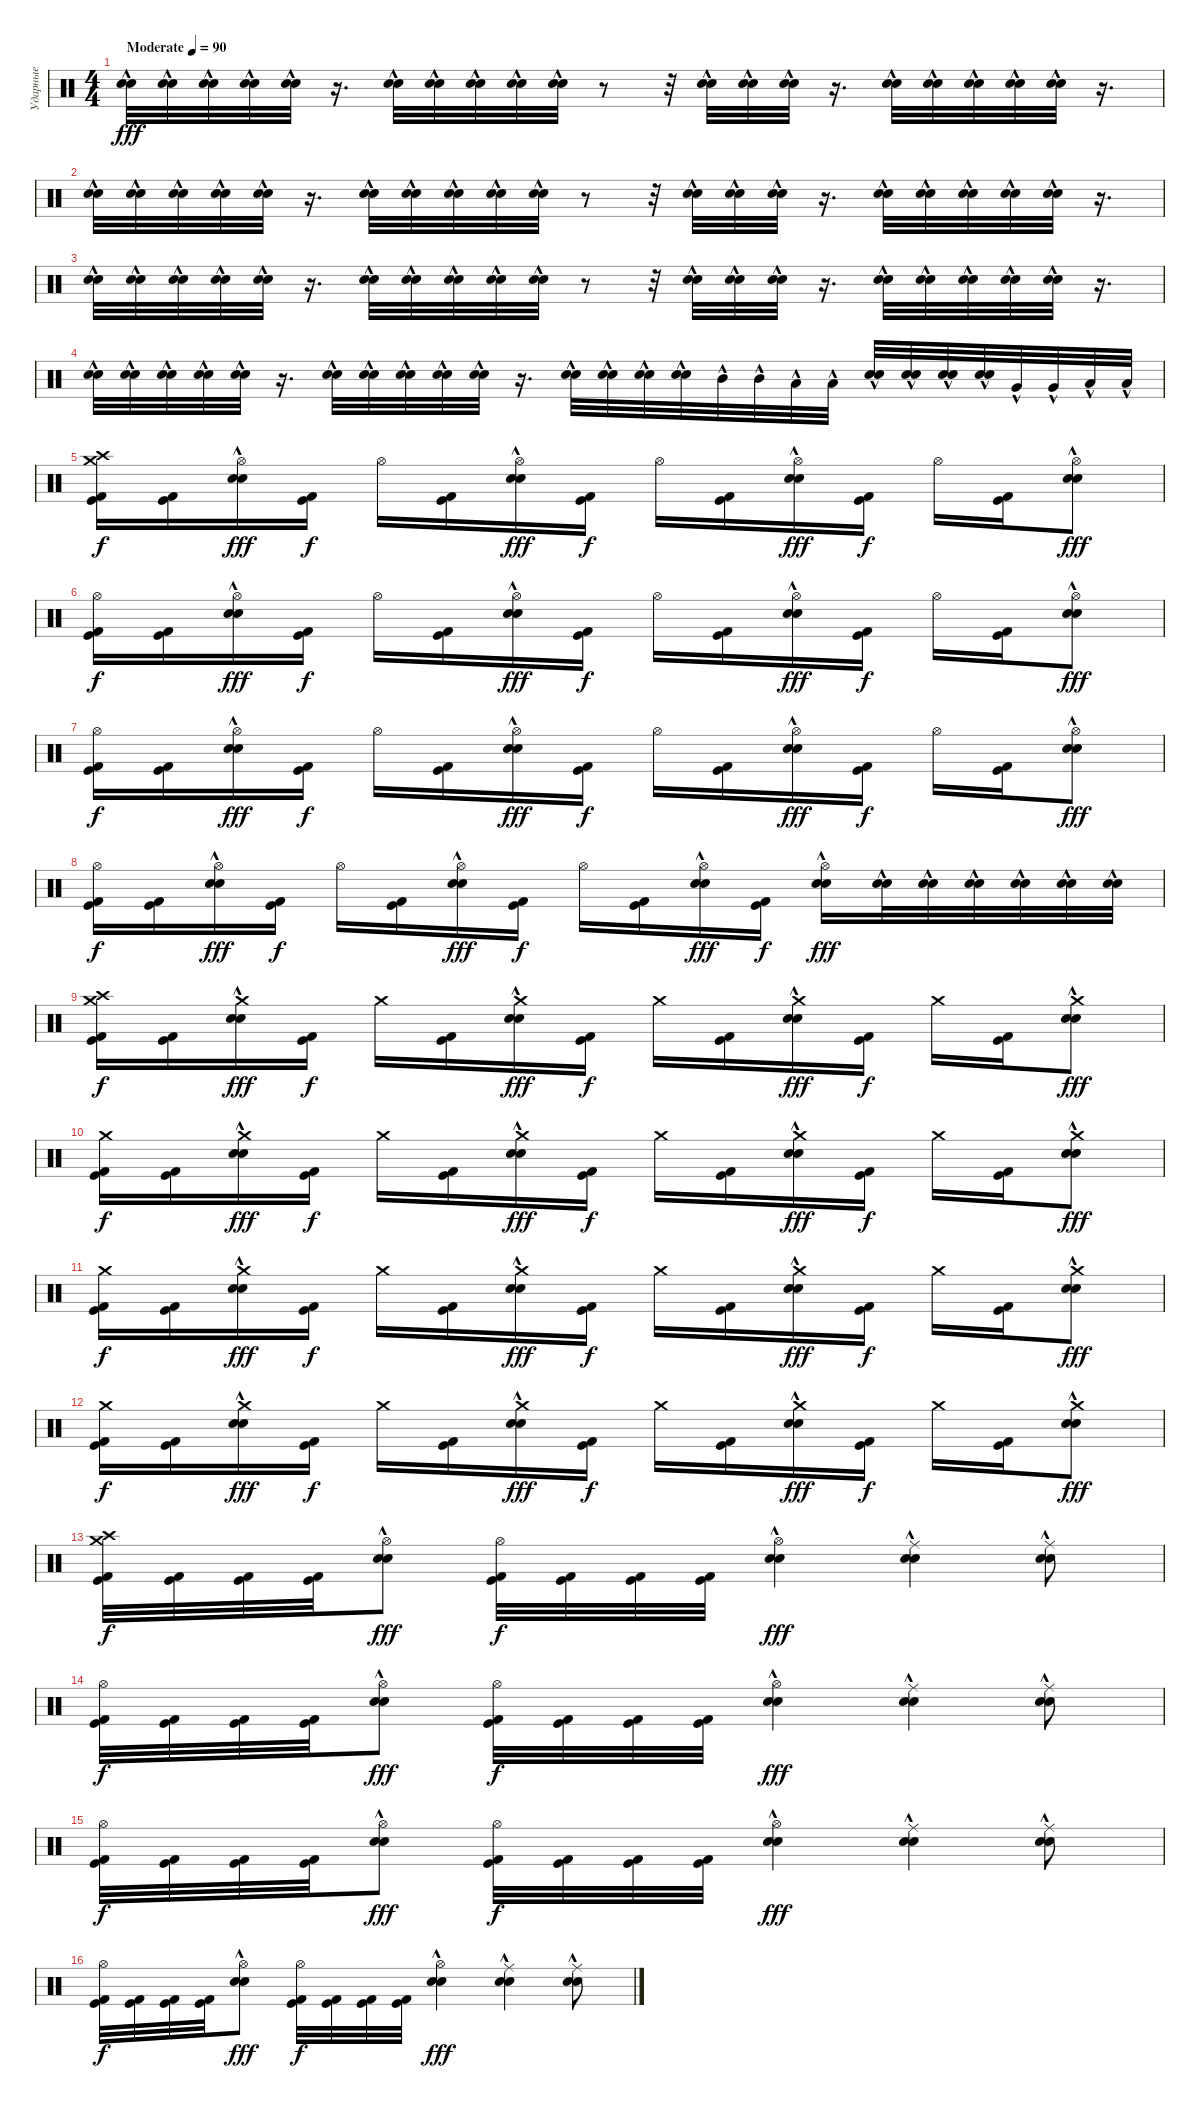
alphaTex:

\track ("Ударные" "Ударные") {instrument percussion}
\staff {score}
\articulation defaults
\ts (4 4)
\tempo (90 "Moderate")
\clef neutral
\ks c
("Snare (hit) 2"{hac} "Electric Snare (hit)"{hac}).32{dy fff} ("Snare (hit) 2"{hac} "Electric Snare (hit)"{hac}).32 ("Snare (hit) 2"{hac} "Electric Snare (hit)"{hac}).32 ("Snare (hit) 2"{hac} "Electric Snare (hit)"{hac}).32 ("Snare (hit) 2"{hac} "Electric Snare (hit)"{hac}).32 r.16{d} ("Snare (hit) 2"{hac} "Electric Snare (hit)"{hac}).32 ("Snare (hit) 2"{hac} "Electric Snare (hit)"{hac}).32 ("Snare (hit) 2"{hac} "Electric Snare (hit)"{hac}).32 ("Snare (hit) 2"{hac} "Electric Snare (hit)"{hac}).32 ("Snare (hit) 2"{hac} "Electric Snare (hit)"{hac}).32 r.8 r.32 ("Snare (hit) 2"{hac} "Electric Snare (hit)"{hac}).32 ("Snare (hit) 2"{hac} "Electric Snare (hit)"{hac}).32 ("Snare (hit) 2"{hac} "Electric Snare (hit)"{hac}).32 r.16{d} ("Snare (hit) 2"{hac} "Electric Snare (hit)"{hac}).32 ("Snare (hit) 2"{hac} "Electric Snare (hit)"{hac}).32 ("Snare (hit) 2"{hac} "Electric Snare (hit)"{hac}).32 ("Snare (hit) 2"{hac} "Electric Snare (hit)"{hac}).32 ("Snare (hit) 2"{hac} "Electric Snare (hit)"{hac}).32 r.16{d} |
("Snare (hit) 2"{hac} "Electric Snare (hit)"{hac}).32 ("Snare (hit) 2"{hac} "Electric Snare (hit)"{hac}).32 ("Snare (hit) 2"{hac} "Electric Snare (hit)"{hac}).32 ("Snare (hit) 2"{hac} "Electric Snare (hit)"{hac}).32 ("Snare (hit) 2"{hac} "Electric Snare (hit)"{hac}).32 r.16{d} ("Snare (hit) 2"{hac} "Electric Snare (hit)"{hac}).32 ("Snare (hit) 2"{hac} "Electric Snare (hit)"{hac}).32 ("Snare (hit) 2"{hac} "Electric Snare (hit)"{hac}).32 ("Snare (hit) 2"{hac} "Electric Snare (hit)"{hac}).32 ("Snare (hit) 2"{hac} "Electric Snare (hit)"{hac}).32 r.8 r.32 ("Snare (hit) 2"{hac} "Electric Snare (hit)"{hac}).32 ("Snare (hit) 2"{hac} "Electric Snare (hit)"{hac}).32 ("Snare (hit) 2"{hac} "Electric Snare (hit)"{hac}).32 r.16{d} ("Snare (hit) 2"{hac} "Electric Snare (hit)"{hac}).32 ("Snare (hit) 2"{hac} "Electric Snare (hit)"{hac}).32 ("Snare (hit) 2"{hac} "Electric Snare (hit)"{hac}).32 ("Snare (hit) 2"{hac} "Electric Snare (hit)"{hac}).32 ("Snare (hit) 2"{hac} "Electric Snare (hit)"{hac}).32 r.16{d} |
("Snare (hit) 2"{hac} "Electric Snare (hit)"{hac}).32 ("Snare (hit) 2"{hac} "Electric Snare (hit)"{hac}).32 ("Snare (hit) 2"{hac} "Electric Snare (hit)"{hac}).32 ("Snare (hit) 2"{hac} "Electric Snare (hit)"{hac}).32 ("Snare (hit) 2"{hac} "Electric Snare (hit)"{hac}).32 r.16{d} ("Snare (hit) 2"{hac} "Electric Snare (hit)"{hac}).32 ("Snare (hit) 2"{hac} "Electric Snare (hit)"{hac}).32 ("Snare (hit) 2"{hac} "Electric Snare (hit)"{hac}).32 ("Snare (hit) 2"{hac} "Electric Snare (hit)"{hac}).32 ("Snare (hit) 2"{hac} "Electric Snare (hit)"{hac}).32 r.8 r.32 ("Snare (hit) 2"{hac} "Electric Snare (hit)"{hac}).32 ("Snare (hit) 2"{hac} "Electric Snare (hit)"{hac}).32 ("Snare (hit) 2"{hac} "Electric Snare (hit)"{hac}).32 r.16{d} ("Snare (hit) 2"{hac} "Electric Snare (hit)"{hac}).32 ("Snare (hit) 2"{hac} "Electric Snare (hit)"{hac}).32 ("Snare (hit) 2"{hac} "Electric Snare (hit)"{hac}).32 ("Snare (hit) 2"{hac} "Electric Snare (hit)"{hac}).32 ("Snare (hit) 2"{hac} "Electric Snare (hit)"{hac}).32 r.16{d} |
("Snare (hit) 2"{hac} "Electric Snare (hit)"{hac}).32 ("Snare (hit) 2"{hac} "Electric Snare (hit)"{hac}).32 ("Snare (hit) 2"{hac} "Electric Snare (hit)"{hac}).32 ("Snare (hit) 2"{hac} "Electric Snare (hit)"{hac}).32 ("Snare (hit) 2"{hac} "Electric Snare (hit)"{hac}).32 r.16{d} ("Snare (hit) 2"{hac} "Electric Snare (hit)"{hac}).32 ("Snare (hit) 2"{hac} "Electric Snare (hit)"{hac}).32 ("Snare (hit) 2"{hac} "Electric Snare (hit)"{hac}).32 ("Snare (hit) 2"{hac} "Electric Snare (hit)"{hac}).32 ("Snare (hit) 2"{hac} "Electric Snare (hit)"{hac}).32 r.16{d} ("Snare (hit) 2"{hac} "Electric Snare (hit)"{hac}).32 ("Snare (hit) 2"{hac} "Electric Snare (hit)"{hac}).32 ("Snare (hit) 2"{hac} "Electric Snare (hit)"{hac}).32 ("Snare (hit) 2"{hac} "Electric Snare (hit)"{hac}).32 "Mid Tom (hit)"{hac}.32 "Mid Tom (hit)"{hac}.32 "Low Tom (hit)"{hac}.32 "Low Tom (hit)"{hac}.32 ("Snare (hit) 2"{hac} "Electric Snare (hit)"{hac}).32 ("Snare (hit) 2"{hac} "Electric Snare (hit)"{hac}).32 ("Snare (hit) 2"{hac} "Electric Snare (hit)"{hac}).32 ("Snare (hit) 2"{hac} "Electric Snare (hit)"{hac}).32 "Very Low Tom (hit)"{hac}.32 "Very Low Tom (hit)"{hac}.32 "Low Floor Tom (hit)"{hac}.32 "Low Floor Tom (hit)"{hac}.32 |
("Crash high (hit)" "Kick (hit)" "Kick (hit) 2" "Crash medium (hit)").16{dy f} ("Kick (hit)" "Kick (hit) 2").16 ("Hi-Hat (open)" "Snare (hit) 2"{hac} "Electric Snare (hit)"{hac}).16{dy fff} ("Kick (hit)" "Kick (hit) 2").16{dy f} "Hi-Hat (open)".16 ("Kick (hit)" "Kick (hit) 2").16 ("Hi-Hat (open)" "Snare (hit) 2"{hac} "Electric Snare (hit)"{hac}).16{dy fff} ("Kick (hit)" "Kick (hit) 2").16{dy f} "Hi-Hat (open)".16 ("Kick (hit)" "Kick (hit) 2").16 ("Hi-Hat (open)" "Snare (hit) 2"{hac} "Electric Snare (hit)"{hac}).16{dy fff} ("Kick (hit)" "Kick (hit) 2").16{dy f} "Hi-Hat (open)".16 ("Kick (hit)" "Kick (hit) 2").16 ("Hi-Hat (open)" "Snare (hit) 2"{hac} "Electric Snare (hit)"{hac}).8{dy fff} |
("Hi-Hat (open)" "Kick (hit)" "Kick (hit) 2").16{dy f} ("Kick (hit)" "Kick (hit) 2").16 ("Hi-Hat (open)" "Snare (hit) 2"{hac} "Electric Snare (hit)"{hac}).16{dy fff} ("Kick (hit)" "Kick (hit) 2").16{dy f} "Hi-Hat (open)".16 ("Kick (hit)" "Kick (hit) 2").16 ("Hi-Hat (open)" "Snare (hit) 2"{hac} "Electric Snare (hit)"{hac}).16{dy fff} ("Kick (hit)" "Kick (hit) 2").16{dy f} "Hi-Hat (open)".16 ("Kick (hit)" "Kick (hit) 2").16 ("Hi-Hat (open)" "Snare (hit) 2"{hac} "Electric Snare (hit)"{hac}).16{dy fff} ("Kick (hit)" "Kick (hit) 2").16{dy f} "Hi-Hat (open)".16 ("Kick (hit)" "Kick (hit) 2").16 ("Hi-Hat (open)" "Snare (hit) 2"{hac} "Electric Snare (hit)"{hac}).8{dy fff} |
("Hi-Hat (open)" "Kick (hit)" "Kick (hit) 2").16{dy f} ("Kick (hit)" "Kick (hit) 2").16 ("Hi-Hat (open)" "Snare (hit) 2"{hac} "Electric Snare (hit)"{hac}).16{dy fff} ("Kick (hit)" "Kick (hit) 2").16{dy f} "Hi-Hat (open)".16 ("Kick (hit)" "Kick (hit) 2").16 ("Hi-Hat (open)" "Snare (hit) 2"{hac} "Electric Snare (hit)"{hac}).16{dy fff} ("Kick (hit)" "Kick (hit) 2").16{dy f} "Hi-Hat (open)".16 ("Kick (hit)" "Kick (hit) 2").16 ("Hi-Hat (open)" "Snare (hit) 2"{hac} "Electric Snare (hit)"{hac}).16{dy fff} ("Kick (hit)" "Kick (hit) 2").16{dy f} "Hi-Hat (open)".16 ("Kick (hit)" "Kick (hit) 2").16 ("Hi-Hat (open)" "Snare (hit) 2"{hac} "Electric Snare (hit)"{hac}).8{dy fff} |
("Hi-Hat (open)" "Kick (hit)" "Kick (hit) 2").16{dy f} ("Kick (hit)" "Kick (hit) 2").16 ("Hi-Hat (open)" "Snare (hit) 2"{hac} "Electric Snare (hit)"{hac}).16{dy fff} ("Kick (hit)" "Kick (hit) 2").16{dy f} "Hi-Hat (open)".16 ("Kick (hit)" "Kick (hit) 2").16 ("Hi-Hat (open)" "Snare (hit) 2"{hac} "Electric Snare (hit)"{hac}).16{dy fff} ("Kick (hit)" "Kick (hit) 2").16{dy f} "Hi-Hat (open)".16 ("Kick (hit)" "Kick (hit) 2").16 ("Hi-Hat (open)" "Snare (hit) 2"{hac} "Electric Snare (hit)"{hac}).16{dy fff} ("Kick (hit)" "Kick (hit) 2").16{dy f} ("Hi-Hat (open)" "Snare (hit) 2"{hac} "Electric Snare (hit)"{hac}).16{dy fff} ("Snare (hit) 2"{hac} "Electric Snare (hit)"{hac}).32 ("Snare (hit) 2"{hac} "Electric Snare (hit)"{hac}).32 ("Snare (hit) 2"{hac} "Electric Snare (hit)"{hac}).32 ("Snare (hit) 2"{hac} "Electric Snare (hit)"{hac}).32 ("Snare (hit) 2"{hac} "Electric Snare (hit)"{hac}).32 ("Snare (hit) 2"{hac} "Electric Snare (hit)"{hac}).32 |
("Crash high (hit)" "Kick (hit)" "Kick (hit) 2" "Crash medium (hit)").16{dy f} ("Kick (hit)" "Kick (hit) 2").16 ("Crash medium (hit)" "Snare (hit) 2"{hac} "Electric Snare (hit)"{hac}).16{dy fff} ("Kick (hit)" "Kick (hit) 2").16{dy f} "Crash medium (hit)".16 ("Kick (hit)" "Kick (hit) 2").16 ("Crash medium (hit)" "Snare (hit) 2"{hac} "Electric Snare (hit)"{hac}).16{dy fff} ("Kick (hit)" "Kick (hit) 2").16{dy f} "Crash medium (hit)".16 ("Kick (hit)" "Kick (hit) 2").16 ("Crash medium (hit)" "Snare (hit) 2"{hac} "Electric Snare (hit)"{hac}).16{dy fff} ("Kick (hit)" "Kick (hit) 2").16{dy f} "Crash medium (hit)".16 ("Kick (hit)" "Kick (hit) 2").16 ("Crash medium (hit)" "Snare (hit) 2"{hac} "Electric Snare (hit)"{hac}).8{dy fff} |
("Crash medium (hit)" "Kick (hit)" "Kick (hit) 2").16{dy f} ("Kick (hit)" "Kick (hit) 2").16 ("Crash medium (hit)" "Snare (hit) 2"{hac} "Electric Snare (hit)"{hac}).16{dy fff} ("Kick (hit)" "Kick (hit) 2").16{dy f} "Crash medium (hit)".16 ("Kick (hit)" "Kick (hit) 2").16 ("Crash medium (hit)" "Snare (hit) 2"{hac} "Electric Snare (hit)"{hac}).16{dy fff} ("Kick (hit)" "Kick (hit) 2").16{dy f} "Crash medium (hit)".16 ("Kick (hit)" "Kick (hit) 2").16 ("Crash medium (hit)" "Snare (hit) 2"{hac} "Electric Snare (hit)"{hac}).16{dy fff} ("Kick (hit)" "Kick (hit) 2").16{dy f} "Crash medium (hit)".16 ("Kick (hit)" "Kick (hit) 2").16 ("Crash medium (hit)" "Snare (hit) 2"{hac} "Electric Snare (hit)"{hac}).8{dy fff} |
("Crash medium (hit)" "Kick (hit)" "Kick (hit) 2").16{dy f} ("Kick (hit)" "Kick (hit) 2").16 ("Crash medium (hit)" "Snare (hit) 2"{hac} "Electric Snare (hit)"{hac}).16{dy fff} ("Kick (hit)" "Kick (hit) 2").16{dy f} "Crash medium (hit)".16 ("Kick (hit)" "Kick (hit) 2").16 ("Crash medium (hit)" "Snare (hit) 2"{hac} "Electric Snare (hit)"{hac}).16{dy fff} ("Kick (hit)" "Kick (hit) 2").16{dy f} "Crash medium (hit)".16 ("Kick (hit)" "Kick (hit) 2").16 ("Crash medium (hit)" "Snare (hit) 2"{hac} "Electric Snare (hit)"{hac}).16{dy fff} ("Kick (hit)" "Kick (hit) 2").16{dy f} "Crash medium (hit)".16 ("Kick (hit)" "Kick (hit) 2").16 ("Crash medium (hit)" "Snare (hit) 2"{hac} "Electric Snare (hit)"{hac}).8{dy fff} |
("Crash medium (hit)" "Kick (hit)" "Kick (hit) 2").16{dy f} ("Kick (hit)" "Kick (hit) 2").16 ("Crash medium (hit)" "Snare (hit) 2"{hac} "Electric Snare (hit)"{hac}).16{dy fff} ("Kick (hit)" "Kick (hit) 2").16{dy f} "Crash medium (hit)".16 ("Kick (hit)" "Kick (hit) 2").16 ("Crash medium (hit)" "Snare (hit) 2"{hac} "Electric Snare (hit)"{hac}).16{dy fff} ("Kick (hit)" "Kick (hit) 2").16{dy f} "Crash medium (hit)".16 ("Kick (hit)" "Kick (hit) 2").16 ("Crash medium (hit)" "Snare (hit) 2"{hac} "Electric Snare (hit)"{hac}).16{dy fff} ("Kick (hit)" "Kick (hit) 2").16{dy f} "Crash medium (hit)".16 ("Kick (hit)" "Kick (hit) 2").16 ("Crash medium (hit)" "Snare (hit) 2"{hac} "Electric Snare (hit)"{hac}).8{dy fff} |
("Crash high (hit)" "Kick (hit)" "Kick (hit) 2" "Crash medium (hit)").32{dy f} ("Kick (hit)" "Kick (hit) 2").32 ("Kick (hit)" "Kick (hit) 2").32 ("Kick (hit)" "Kick (hit) 2").32 ("Hi-Hat (open)" "Snare (hit) 2"{hac} "Electric Snare (hit)"{hac}).8{dy fff} ("Hi-Hat (open)" "Kick (hit)" "Kick (hit) 2").32{dy f} ("Kick (hit)" "Kick (hit) 2").32 ("Kick (hit)" "Kick (hit) 2").32 ("Kick (hit)" "Kick (hit) 2").32 ("Hi-Hat (open)" "Snare (hit) 2"{hac} "Electric Snare (hit)"{hac}).4{dy fff} ("Ride (middle)" "Snare (hit) 2"{hac} "Electric Snare (hit)"{hac}).4 ("Ride (middle)" "Snare (hit) 2"{hac} "Electric Snare (hit)"{hac}).8 |
("Hi-Hat (open)" "Kick (hit)" "Kick (hit) 2").32{dy f} ("Kick (hit)" "Kick (hit) 2").32 ("Kick (hit)" "Kick (hit) 2").32 ("Kick (hit)" "Kick (hit) 2").32 ("Hi-Hat (open)" "Snare (hit) 2"{hac} "Electric Snare (hit)"{hac}).8{dy fff} ("Hi-Hat (open)" "Kick (hit)" "Kick (hit) 2").32{dy f} ("Kick (hit)" "Kick (hit) 2").32 ("Kick (hit)" "Kick (hit) 2").32 ("Kick (hit)" "Kick (hit) 2").32 ("Hi-Hat (open)" "Snare (hit) 2"{hac} "Electric Snare (hit)"{hac}).4{dy fff} ("Ride (middle)" "Snare (hit) 2"{hac} "Electric Snare (hit)"{hac}).4 ("Ride (middle)" "Snare (hit) 2"{hac} "Electric Snare (hit)"{hac}).8 |
("Hi-Hat (open)" "Kick (hit)" "Kick (hit) 2").32{dy f} ("Kick (hit)" "Kick (hit) 2").32 ("Kick (hit)" "Kick (hit) 2").32 ("Kick (hit)" "Kick (hit) 2").32 ("Hi-Hat (open)" "Snare (hit) 2"{hac} "Electric Snare (hit)"{hac}).8{dy fff} ("Hi-Hat (open)" "Kick (hit)" "Kick (hit) 2").32{dy f} ("Kick (hit)" "Kick (hit) 2").32 ("Kick (hit)" "Kick (hit) 2").32 ("Kick (hit)" "Kick (hit) 2").32 ("Hi-Hat (open)" "Snare (hit) 2"{hac} "Electric Snare (hit)"{hac}).4{dy fff} ("Ride (middle)" "Snare (hit) 2"{hac} "Electric Snare (hit)"{hac}).4 ("Ride (middle)" "Snare (hit) 2"{hac} "Electric Snare (hit)"{hac}).8 |
("Hi-Hat (open)" "Kick (hit)" "Kick (hit) 2").32{dy f} ("Kick (hit)" "Kick (hit) 2").32 ("Kick (hit)" "Kick (hit) 2").32 ("Kick (hit)" "Kick (hit) 2").32 ("Hi-Hat (open)" "Snare (hit) 2"{hac} "Electric Snare (hit)"{hac}).8{dy fff} ("Hi-Hat (open)" "Kick (hit)" "Kick (hit) 2").32{dy f} ("Kick (hit)" "Kick (hit) 2").32 ("Kick (hit)" "Kick (hit) 2").32 ("Kick (hit)" "Kick (hit) 2").32 ("Hi-Hat (open)" "Snare (hit) 2"{hac} "Electric Snare (hit)"{hac}).4{dy fff} ("Ride (middle)" "Snare (hit) 2"{hac} "Electric Snare (hit)"{hac}).4 ("Ride (middle)" "Snare (hit) 2"{hac} "Electric Snare (hit)"{hac}).8
